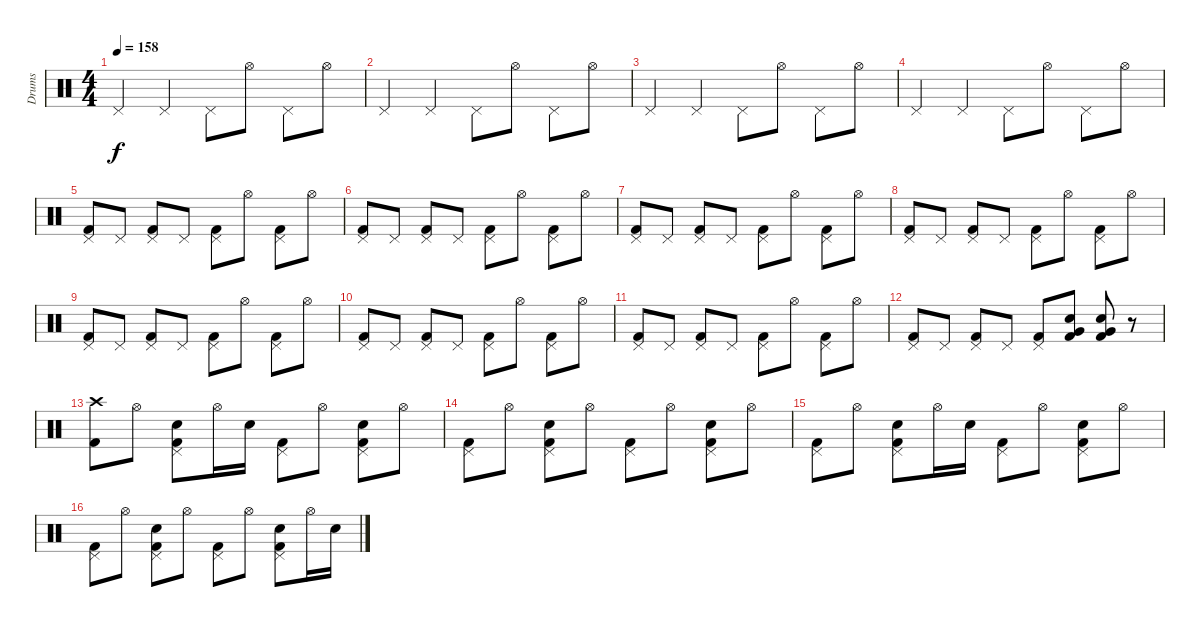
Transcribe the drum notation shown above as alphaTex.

\track ("Drums" "Drums") {instrument percussion}
\staff {score}
\articulation defaults
\ts (4 4)
\tempo 158
\clef neutral
\ks c "Pedal Hi-Hat (hit)".4{dy f} "Pedal Hi-Hat (hit)".4 "Pedal Hi-Hat (hit)".8 "Hi-Hat (open)".8 "Pedal Hi-Hat (hit)".8 "Hi-Hat (open)".8
|
"Pedal Hi-Hat (hit)".4 "Pedal Hi-Hat (hit)".4 "Pedal Hi-Hat (hit)".8 "Hi-Hat (open)".8 "Pedal Hi-Hat (hit)".8 "Hi-Hat (open)".8 |
"Pedal Hi-Hat (hit)".4 "Pedal Hi-Hat (hit)".4 "Pedal Hi-Hat (hit)".8 "Hi-Hat (open)".8 "Pedal Hi-Hat (hit)".8 "Hi-Hat (open)".8 |
"Pedal Hi-Hat (hit)".4 "Pedal Hi-Hat (hit)".4 "Pedal Hi-Hat (hit)".8 "Hi-Hat (open)".8 "Pedal Hi-Hat (hit)".8 "Hi-Hat (open)".8 |
("Pedal Hi-Hat (hit)" "Kick (hit) 2").8 "Pedal Hi-Hat (hit)".8 ("Pedal Hi-Hat (hit)" "Kick (hit) 2").8 "Pedal Hi-Hat (hit)".8 ("Pedal Hi-Hat (hit)" "Kick (hit) 2").8 "Hi-Hat (open)".8 ("Pedal Hi-Hat (hit)" "Kick (hit) 2").8 "Hi-Hat (open)".8 |
("Pedal Hi-Hat (hit)" "Kick (hit) 2").8 "Pedal Hi-Hat (hit)".8 ("Pedal Hi-Hat (hit)" "Kick (hit) 2").8 "Pedal Hi-Hat (hit)".8 ("Pedal Hi-Hat (hit)" "Kick (hit) 2").8 "Hi-Hat (open)".8 ("Pedal Hi-Hat (hit)" "Kick (hit) 2").8 "Hi-Hat (open)".8 |
("Pedal Hi-Hat (hit)" "Kick (hit) 2").8 "Pedal Hi-Hat (hit)".8 ("Pedal Hi-Hat (hit)" "Kick (hit) 2").8 "Pedal Hi-Hat (hit)".8 ("Pedal Hi-Hat (hit)" "Kick (hit) 2").8 "Hi-Hat (open)".8 ("Pedal Hi-Hat (hit)" "Kick (hit) 2").8 "Hi-Hat (open)".8 |
("Pedal Hi-Hat (hit)" "Kick (hit) 2").8 "Pedal Hi-Hat (hit)".8 ("Pedal Hi-Hat (hit)" "Kick (hit) 2").8 "Pedal Hi-Hat (hit)".8 ("Pedal Hi-Hat (hit)" "Kick (hit) 2").8 "Hi-Hat (open)".8 ("Pedal Hi-Hat (hit)" "Kick (hit) 2").8 "Hi-Hat (open)".8 |
("Pedal Hi-Hat (hit)" "Kick (hit) 2").8 "Pedal Hi-Hat (hit)".8 ("Pedal Hi-Hat (hit)" "Kick (hit) 2").8 "Pedal Hi-Hat (hit)".8 ("Pedal Hi-Hat (hit)" "Kick (hit) 2").8 "Hi-Hat (open)".8 ("Pedal Hi-Hat (hit)" "Kick (hit) 2").8 "Hi-Hat (open)".8 |
("Pedal Hi-Hat (hit)" "Kick (hit) 2").8 "Pedal Hi-Hat (hit)".8 ("Pedal Hi-Hat (hit)" "Kick (hit) 2").8 "Pedal Hi-Hat (hit)".8 ("Pedal Hi-Hat (hit)" "Kick (hit) 2").8 "Hi-Hat (open)".8 ("Pedal Hi-Hat (hit)" "Kick (hit) 2").8 "Hi-Hat (open)".8 |
("Pedal Hi-Hat (hit)" "Kick (hit) 2").8 "Pedal Hi-Hat (hit)".8 ("Pedal Hi-Hat (hit)" "Kick (hit) 2").8 "Pedal Hi-Hat (hit)".8 ("Pedal Hi-Hat (hit)" "Kick (hit) 2").8 "Hi-Hat (open)".8 ("Pedal Hi-Hat (hit)" "Kick (hit) 2").8 "Hi-Hat (open)".8 |
("Pedal Hi-Hat (hit)" "Kick (hit) 2").8 "Pedal Hi-Hat (hit)".8 ("Pedal Hi-Hat (hit)" "Kick (hit) 2").8 "Pedal Hi-Hat (hit)".8 ("Pedal Hi-Hat (hit)" "Kick (hit) 2").8 ("Electric Snare (hit)" "Very Low Tom (hit)" "Kick (hit) 2").8 ("Electric Snare (hit)" "Very Low Tom (hit)" "Kick (hit) 2").8 r.8 |
("Crash high (hit)" "Kick (hit) 2").8 "Hi-Hat (open)".8 ("Pedal Hi-Hat (hit)" "Electric Snare (hit)" "Kick (hit) 2").8 "Hi-Hat (open)".16 "Electric Snare (hit)".16 ("Pedal Hi-Hat (hit)" "Kick (hit) 2").8 "Hi-Hat (open)".8 ("Pedal Hi-Hat (hit)" "Electric Snare (hit)" "Kick (hit) 2").8 "Hi-Hat (open)".8 |
("Pedal Hi-Hat (hit)" "Kick (hit) 2").8 "Hi-Hat (open)".8 ("Pedal Hi-Hat (hit)" "Electric Snare (hit)" "Kick (hit) 2").8 "Hi-Hat (open)".8 ("Pedal Hi-Hat (hit)" "Kick (hit) 2").8 "Hi-Hat (open)".8 ("Pedal Hi-Hat (hit)" "Electric Snare (hit)" "Kick (hit) 2").8 "Hi-Hat (open)".8 |
("Pedal Hi-Hat (hit)" "Kick (hit) 2").8 "Hi-Hat (open)".8 ("Pedal Hi-Hat (hit)" "Electric Snare (hit)" "Kick (hit) 2").8 "Hi-Hat (open)".16 "Electric Snare (hit)".16 ("Pedal Hi-Hat (hit)" "Kick (hit) 2").8 "Hi-Hat (open)".8 ("Pedal Hi-Hat (hit)" "Electric Snare (hit)" "Kick (hit) 2").8 "Hi-Hat (open)".8 |
("Pedal Hi-Hat (hit)" "Kick (hit) 2").8 "Hi-Hat (open)".8 ("Pedal Hi-Hat (hit)" "Electric Snare (hit)" "Kick (hit) 2").8 "Hi-Hat (open)".8 ("Pedal Hi-Hat (hit)" "Kick (hit) 2").8 "Hi-Hat (open)".8 ("Pedal Hi-Hat (hit)" "Electric Snare (hit)" "Kick (hit) 2").8 "Hi-Hat (open)".16 "Electric Snare (hit)".16
